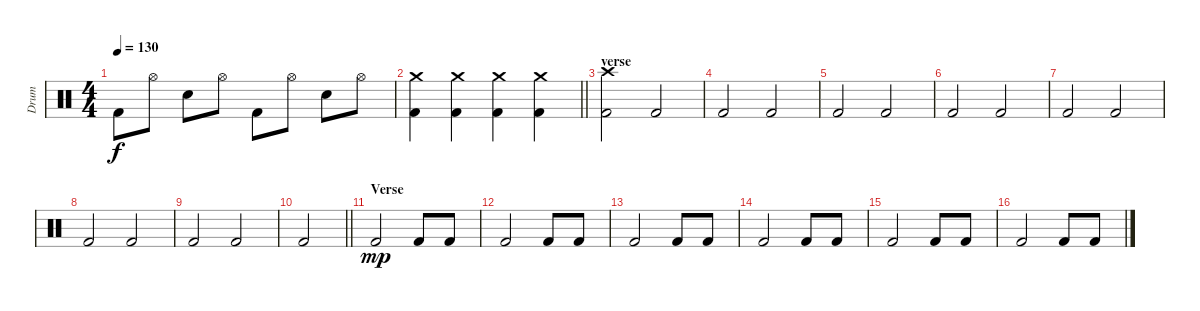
\track ("Drum" "Drum") {instrument percussion}
\staff {score}
\articulation defaults
\ts (4 4)
\tempo 130
\clef neutral
\ks c "Kick (hit) 2".8{dy f} "Hi-Hat (open)".8 "Electric Snare (hit)".8 "Hi-Hat (open)".8 "Kick (hit) 2".8 "Hi-Hat (open)".8 "Electric Snare (hit)".8 "Hi-Hat (open)".8
|
\barLineRight lightlight
("Crash medium (hit)" "Kick (hit) 2").4 ("Crash medium (hit)" "Kick (hit) 2").4 ("Crash medium (hit)" "Kick (hit) 2").4 ("Crash medium (hit)" "Kick (hit) 2").4 |
\section ("" "verse")
("Crash high (hit)" "Kick (hit) 2").2 "Kick (hit) 2".2 |
"Kick (hit) 2".2 "Kick (hit) 2".2 |
"Kick (hit) 2".2 "Kick (hit) 2".2 |
"Kick (hit) 2".2 "Kick (hit) 2".2 |
"Kick (hit) 2".2 "Kick (hit) 2".2 |
"Kick (hit) 2".2 "Kick (hit) 2".2 |
"Kick (hit) 2".2 "Kick (hit) 2".2 |
\barLineRight lightlight "Kick (hit) 2".2
|
\section ("" "Verse ")
"Kick (hit) 2".2{dy mp} "Kick (hit) 2".8 "Kick (hit) 2".8 |
"Kick (hit) 2".2 "Kick (hit) 2".8 "Kick (hit) 2".8 |
"Kick (hit) 2".2 "Kick (hit) 2".8 "Kick (hit) 2".8 |
"Kick (hit) 2".2 "Kick (hit) 2".8 "Kick (hit) 2".8 |
"Kick (hit) 2".2 "Kick (hit) 2".8 "Kick (hit) 2".8 |
"Kick (hit) 2".2 "Kick (hit) 2".8 "Kick (hit) 2".8
